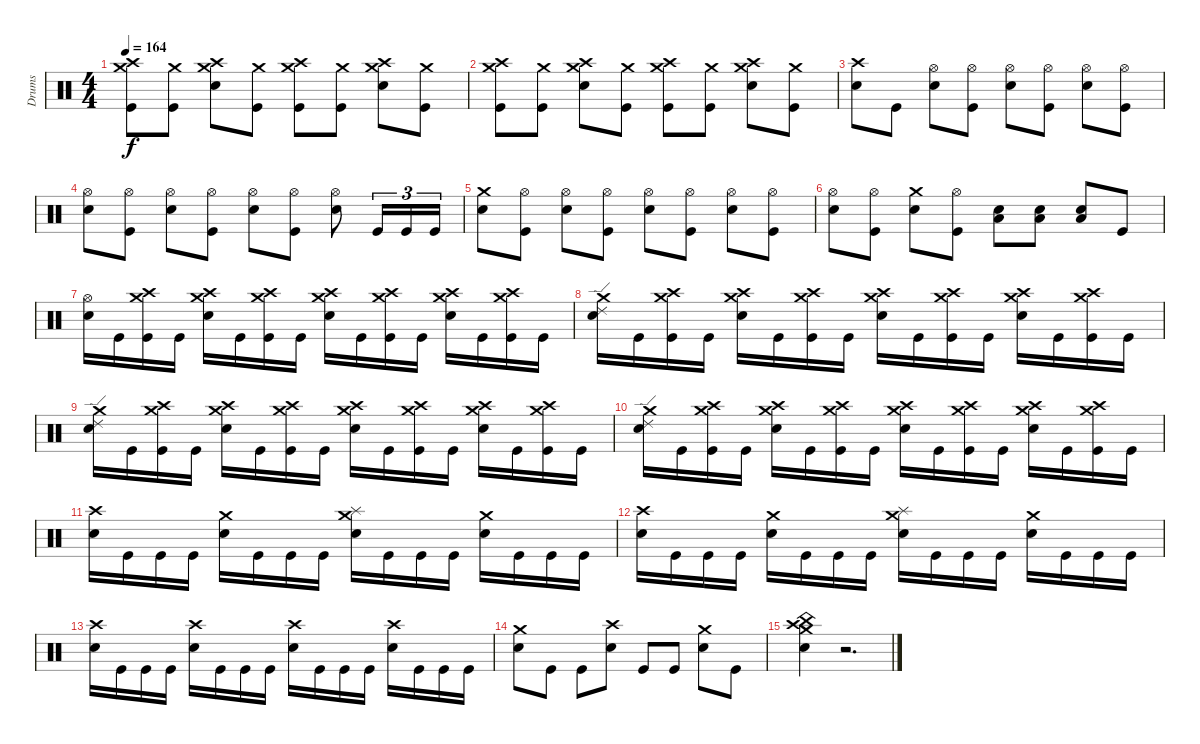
\track ("Drums" "Drums") {instrument percussion}
\staff {score}
\articulation defaults
\ts (4 4)
\tempo 164
\clef neutral
\ks c
("Crash medium (hit)" "Kick (hit)" "Crash high (hit)").8{dy f} ("Crash medium (hit)" "Kick (hit)").8 ("Snare (hit) 2" "Crash medium (hit)" "Crash high (hit)").8 ("Crash medium (hit)" "Kick (hit)").8 ("Crash medium (hit)" "Kick (hit)" "Crash high (hit)").8 ("Crash medium (hit)" "Kick (hit)").8 ("Snare (hit) 2" "Crash medium (hit)" "Crash high (hit)").8 ("Crash medium (hit)" "Kick (hit)").8 |
("Crash medium (hit)" "Kick (hit)" "Crash high (hit)").8 ("Crash medium (hit)" "Kick (hit)").8 ("Snare (hit) 2" "Crash medium (hit)" "Crash high (hit)").8 ("Crash medium (hit)" "Kick (hit)").8 ("Crash medium (hit)" "Kick (hit)" "Crash high (hit)").8 ("Crash medium (hit)" "Kick (hit)").8 ("Snare (hit) 2" "Crash medium (hit)" "Crash high (hit)").8 ("Crash medium (hit)" "Kick (hit)").8 |
("Snare (hit) 2" "Crash high (hit)").8 "Kick (hit)".8 ("Snare (hit) 2" "Hi-Hat (open)").8 ("Hi-Hat (open)" "Kick (hit)").8 ("Snare (hit) 2" "Hi-Hat (open)").8 ("Hi-Hat (open)" "Kick (hit)").8 ("Snare (hit) 2" "Hi-Hat (open)").8 ("Hi-Hat (open)" "Kick (hit)").8 |
("Snare (hit) 2" "Hi-Hat (open)").8 ("Hi-Hat (open)" "Kick (hit)").8 ("Snare (hit) 2" "Hi-Hat (open)").8 ("Hi-Hat (open)" "Kick (hit)").8 ("Snare (hit) 2" "Hi-Hat (open)").8 ("Hi-Hat (open)" "Kick (hit)").8 ("Snare (hit) 2" "Hi-Hat (open)").8 "Kick (hit)".16{tu (3 2)} "Kick (hit)".16{tu (3 2)} "Kick (hit)".16{tu (3 2)} |
("Snare (hit) 2" "Crash medium (hit)").8 ("Hi-Hat (open)" "Kick (hit)").8 ("Snare (hit) 2" "Hi-Hat (open)").8 ("Hi-Hat (open)" "Kick (hit)").8 ("Snare (hit) 2" "Hi-Hat (open)").8 ("Hi-Hat (open)" "Kick (hit)").8 ("Snare (hit) 2" "Hi-Hat (open)").8 ("Hi-Hat (open)" "Kick (hit)").8 |
("Snare (hit) 2" "Hi-Hat (open)").8 ("Hi-Hat (open)" "Kick (hit)").8 ("Snare (hit) 2" "Crash medium (hit)").8 ("Hi-Hat (open)" "Kick (hit)").8 ("Snare (hit) 2" "Low Floor Tom (hit)").8 ("Snare (hit) 2" "Low Floor Tom (hit)").8 ("Snare (hit) 2" "Low Floor Tom (hit)").8 "Kick (hit)".8 |
("Snare (hit) 2" "Hi-Hat (open)").16 "Kick (hit)".16 ("Crash medium (hit)" "Kick (hit)" "Crash high (hit)").16 "Kick (hit)".16 ("Snare (hit) 2" "Crash medium (hit)" "Crash high (hit)").16 "Kick (hit)".16 ("Crash medium (hit)" "Kick (hit)" "Crash high (hit)").16 "Kick (hit)".16 ("Snare (hit) 2" "Crash medium (hit)" "Crash high (hit)").16 "Kick (hit)".16 ("Crash medium (hit)" "Kick (hit)" "Crash high (hit)").16 "Kick (hit)".16 ("Snare (hit) 2" "Crash medium (hit)" "Crash high (hit)").16 "Kick (hit)".16 ("Crash medium (hit)" "Kick (hit)" "Crash high (hit)").16 "Kick (hit)".16 |
("Snare (hit) 2" "Crash medium (hit)" "Ride (edge) 2").16 "Kick (hit)".16 ("Crash medium (hit)" "Kick (hit)" "Crash high (hit)").16 "Kick (hit)".16 ("Snare (hit) 2" "Crash medium (hit)" "Crash high (hit)").16 "Kick (hit)".16 ("Crash medium (hit)" "Kick (hit)" "Crash high (hit)").16 "Kick (hit)".16 ("Snare (hit) 2" "Crash medium (hit)" "Crash high (hit)").16 "Kick (hit)".16 ("Crash medium (hit)" "Kick (hit)" "Crash high (hit)").16 "Kick (hit)".16 ("Snare (hit) 2" "Crash medium (hit)" "Crash high (hit)").16 "Kick (hit)".16 ("Crash medium (hit)" "Kick (hit)" "Crash high (hit)").16 "Kick (hit)".16 |
("Snare (hit) 2" "Crash medium (hit)" "Ride (edge) 2").16 "Kick (hit)".16 ("Crash medium (hit)" "Kick (hit)" "Crash high (hit)").16 "Kick (hit)".16 ("Snare (hit) 2" "Crash medium (hit)" "Crash high (hit)").16 "Kick (hit)".16 ("Crash medium (hit)" "Kick (hit)" "Crash high (hit)").16 "Kick (hit)".16 ("Snare (hit) 2" "Crash medium (hit)" "Crash high (hit)").16 "Kick (hit)".16 ("Crash medium (hit)" "Kick (hit)" "Crash high (hit)").16 "Kick (hit)".16 ("Snare (hit) 2" "Crash medium (hit)" "Crash high (hit)").16 "Kick (hit)".16 ("Crash medium (hit)" "Kick (hit)" "Crash high (hit)").16 "Kick (hit)".16 |
("Snare (hit) 2" "Crash medium (hit)" "Ride (edge) 2").16 "Kick (hit)".16 ("Crash medium (hit)" "Kick (hit)" "Crash high (hit)").16 "Kick (hit)".16 ("Snare (hit) 2" "Crash medium (hit)" "Crash high (hit)").16 "Kick (hit)".16 ("Crash medium (hit)" "Kick (hit)" "Crash high (hit)").16 "Kick (hit)".16 ("Snare (hit) 2" "Crash medium (hit)" "Crash high (hit)").16 "Kick (hit)".16 ("Crash medium (hit)" "Kick (hit)" "Crash high (hit)").16 "Kick (hit)".16 ("Snare (hit) 2" "Crash medium (hit)" "Crash high (hit)").16 "Kick (hit)".16 ("Crash medium (hit)" "Kick (hit)" "Crash high (hit)").16 "Kick (hit)".16 |
("Snare (hit) 2" "Crash high (hit)").16 "Kick (hit)".16 "Kick (hit)".16 "Kick (hit)".16 ("Snare (hit) 2" "Crash medium (hit)").16 "Kick (hit)".16 "Kick (hit)".16 "Kick (hit)".16 ("Snare (hit) 2" "Splash (hit)" "Crash medium (hit)").16 "Kick (hit)".16 "Kick (hit)".16 "Kick (hit)".16 ("Snare (hit) 2" "Crash medium (hit)").16 "Kick (hit)".16 "Kick (hit)".16 "Kick (hit)".16 |
("Snare (hit) 2" "Crash high (hit)").16 "Kick (hit)".16 "Kick (hit)".16 "Kick (hit)".16 ("Snare (hit) 2" "Crash medium (hit)").16 "Kick (hit)".16 "Kick (hit)".16 "Kick (hit)".16 ("Snare (hit) 2" "Splash (hit)" "Crash medium (hit)").16 "Kick (hit)".16 "Kick (hit)".16 "Kick (hit)".16 ("Snare (hit) 2" "Crash medium (hit)").16 "Kick (hit)".16 "Kick (hit)".16 "Kick (hit)".16 |
("Snare (hit) 2" "Crash high (hit)").16 "Kick (hit)".16 "Kick (hit)".16 "Kick (hit)".16 ("Snare (hit) 2" "Crash high (hit)").16 "Kick (hit)".16 "Kick (hit)".16 "Kick (hit)".16 ("Snare (hit) 2" "Crash high (hit)").16 "Kick (hit)".16 "Kick (hit)".16 "Kick (hit)".16 ("Snare (hit) 2" "Crash high (hit)").16 "Kick (hit)".16 "Kick (hit)".16 "Kick (hit)".16 |
("Snare (hit) 2" "Crash medium (hit)").8 "Kick (hit)".8 "Kick (hit)".8 ("Snare (hit) 2" "Crash high (hit)").8 "Kick (hit)".8 "Kick (hit)".8 ("Snare (hit) 2" "Crash medium (hit)").8 "Kick (hit)".8 |
("Snare (hit) 2" "Crash high (hit)" "Crash medium (hit)" "China (hit)").4 r.2{d}
